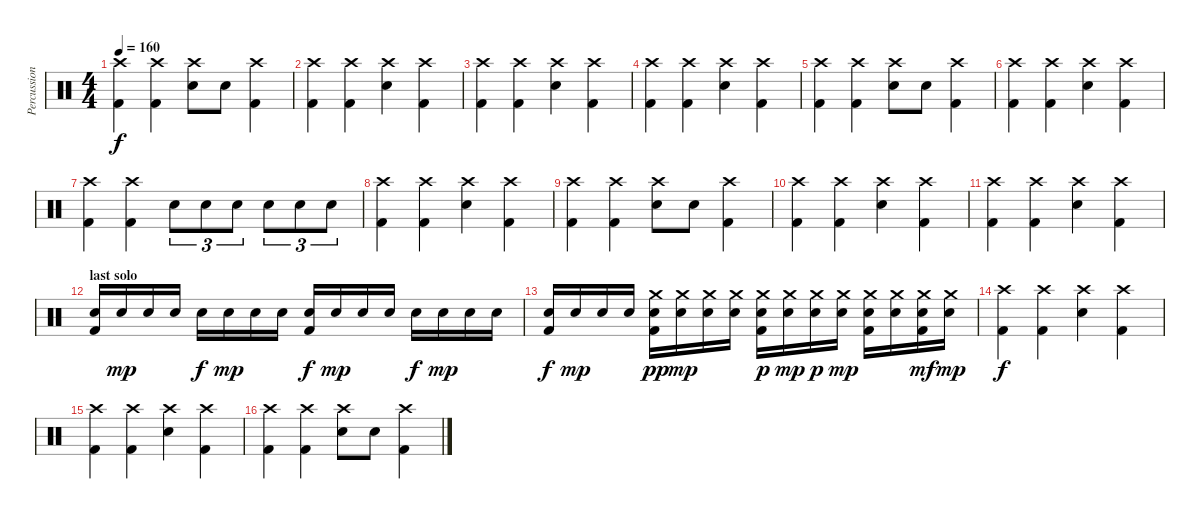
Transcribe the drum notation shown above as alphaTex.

\track ("Percussions" "Percussion") {instrument percussion}
\staff {score}
\articulation defaults
\ts (4 4)
\tempo 160
\clef neutral
\ks c
("Crash high (hit)" "Kick (hit) 2").4{dy f} ("Crash high (hit)" "Kick (hit) 2").4 ("Crash high (hit)" "Snare (hit) 2").8 "Snare (hit) 2".8 ("Crash high (hit)" "Kick (hit) 2").4 |
("Crash high (hit)" "Kick (hit) 2").4 ("Crash high (hit)" "Kick (hit) 2").4 ("Crash high (hit)" "Snare (hit) 2").4 ("Crash high (hit)" "Kick (hit) 2").4 |
("Crash high (hit)" "Kick (hit) 2").4 ("Crash high (hit)" "Kick (hit) 2").4 ("Crash high (hit)" "Snare (hit) 2").4 ("Crash high (hit)" "Kick (hit) 2").4 |
("Crash high (hit)" "Kick (hit) 2").4 ("Crash high (hit)" "Kick (hit) 2").4 ("Crash high (hit)" "Snare (hit) 2").4 ("Crash high (hit)" "Kick (hit) 2").4 |
("Crash high (hit)" "Kick (hit) 2").4 ("Crash high (hit)" "Kick (hit) 2").4 ("Crash high (hit)" "Snare (hit) 2").8 "Snare (hit) 2".8 ("Crash high (hit)" "Kick (hit) 2").4 |
("Crash high (hit)" "Kick (hit) 2").4 ("Crash high (hit)" "Kick (hit) 2").4 ("Crash high (hit)" "Snare (hit) 2").4 ("Crash high (hit)" "Kick (hit) 2").4 |
("Crash high (hit)" "Kick (hit) 2").4 ("Crash high (hit)" "Kick (hit) 2").4 "Snare (hit) 2".8{tu (3 2)} "Snare (hit) 2".8{tu (3 2)} "Snare (hit) 2".8{tu (3 2)} "Snare (hit) 2".8{tu (3 2)} "Snare (hit) 2".8{tu (3 2)} "Snare (hit) 2".8{tu (3 2)} |
("Crash high (hit)" "Kick (hit) 2").4 ("Crash high (hit)" "Kick (hit) 2").4 ("Crash high (hit)" "Snare (hit) 2").4 ("Crash high (hit)" "Kick (hit) 2").4 |
("Crash high (hit)" "Kick (hit) 2").4 ("Crash high (hit)" "Kick (hit) 2").4 ("Crash high (hit)" "Snare (hit) 2").8 "Snare (hit) 2".8 ("Crash high (hit)" "Kick (hit) 2").4 |
("Crash high (hit)" "Kick (hit) 2").4 ("Crash high (hit)" "Kick (hit) 2").4 ("Crash high (hit)" "Snare (hit) 2").4 ("Crash high (hit)" "Kick (hit) 2").4 |
("Crash high (hit)" "Kick (hit) 2").4 ("Crash high (hit)" "Kick (hit) 2").4 ("Crash high (hit)" "Snare (hit) 2").4 ("Crash high (hit)" "Kick (hit) 2").4 |
\section ("" "last solo")
("Snare (hit) 2" "Kick (hit) 2").16 "Snare (hit) 2".16{dy mp} "Snare (hit) 2".16 "Snare (hit) 2".16 "Snare (hit) 2".16{dy f} "Snare (hit) 2".16{dy mp} "Snare (hit) 2".16 "Snare (hit) 2".16 ("Snare (hit) 2" "Kick (hit) 2").16{dy f} "Snare (hit) 2".16{dy mp} "Snare (hit) 2".16 "Snare (hit) 2".16 "Snare (hit) 2".16{dy f} "Snare (hit) 2".16{dy mp} "Snare (hit) 2".16 "Snare (hit) 2".16 |
("Snare (hit) 2" "Kick (hit) 2").16{dy f} "Snare (hit) 2".16{dy mp} "Snare (hit) 2".16 "Snare (hit) 2".16 ("Crash medium (hit)" "Snare (hit) 2" "Kick (hit) 2").16{dy pp} ("Crash medium (hit)" "Snare (hit) 2").16{dy mp} ("Crash medium (hit)" "Snare (hit) 2").16 ("Crash medium (hit)" "Snare (hit) 2").16 ("Crash medium (hit)" "Snare (hit) 2" "Kick (hit) 2").16{dy p} ("Crash medium (hit)" "Snare (hit) 2").16{dy mp} ("Crash medium (hit)" "Snare (hit) 2").16{dy p} ("Crash medium (hit)" "Snare (hit) 2").16{dy mp} ("Crash medium (hit)" "Snare (hit) 2" "Kick (hit) 2").16 ("Crash medium (hit)" "Snare (hit) 2").16 ("Crash medium (hit)" "Snare (hit) 2" "Kick (hit) 2").16{dy mf} ("Crash medium (hit)" "Snare (hit) 2").16{dy mp} |
("Crash high (hit)" "Kick (hit) 2").4{dy f volume 14} ("Crash high (hit)" "Kick (hit) 2").4 ("Crash high (hit)" "Snare (hit) 2").4 ("Crash high (hit)" "Kick (hit) 2").4 |
("Crash high (hit)" "Kick (hit) 2").4 ("Crash high (hit)" "Kick (hit) 2").4 ("Crash high (hit)" "Snare (hit) 2").4 ("Crash high (hit)" "Kick (hit) 2").4 |
("Crash high (hit)" "Kick (hit) 2").4 ("Crash high (hit)" "Kick (hit) 2").4 ("Crash high (hit)" "Snare (hit) 2").8 "Snare (hit) 2".8 ("Crash high (hit)" "Kick (hit) 2").4
